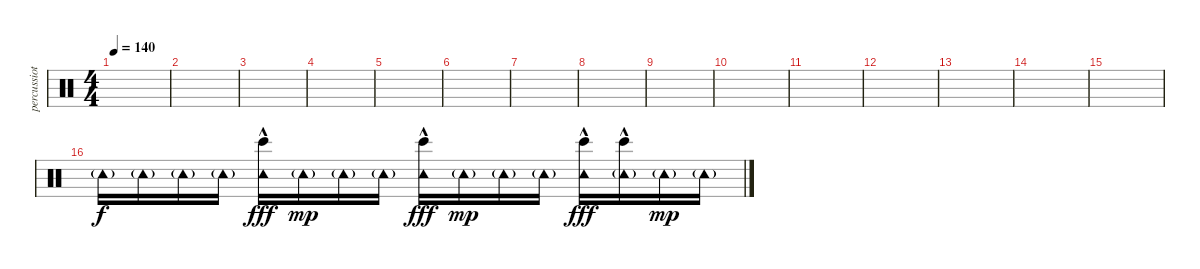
\track ("percussiot" "percussiot") {instrument percussion}
\staff {score}
\articulation defaults
\ts (4 4)
\tempo 140
\clef neutral
\ks c
|
|
|
|
|
|
|
|
|
|
|
|
|
|
|
"Tambourine (hit)"{g}.16 "Tambourine (hit)"{g}.16 "Tambourine (hit)"{g}.16 "Tambourine (hit)"{g}.16 ("Tambourine (hit)" "Bongo High (hit)"{hac}).16{dy fff} "Tambourine (hit)"{g}.16{dy mp} "Tambourine (hit)"{g}.16 "Tambourine (hit)"{g}.16 ("Tambourine (hit)" "Bongo High (hit)"{hac}).16{dy fff} "Tambourine (hit)"{g}.16{dy mp} "Tambourine (hit)"{g}.16 "Tambourine (hit)"{g}.16 ("Tambourine (hit)" "Bongo High (hit)"{hac}).16{dy fff} ("Tambourine (hit)"{g} "Bongo High (hit)"{hac}).16 "Tambourine (hit)"{g}.16{dy mp} "Tambourine (hit)"{g}.16
